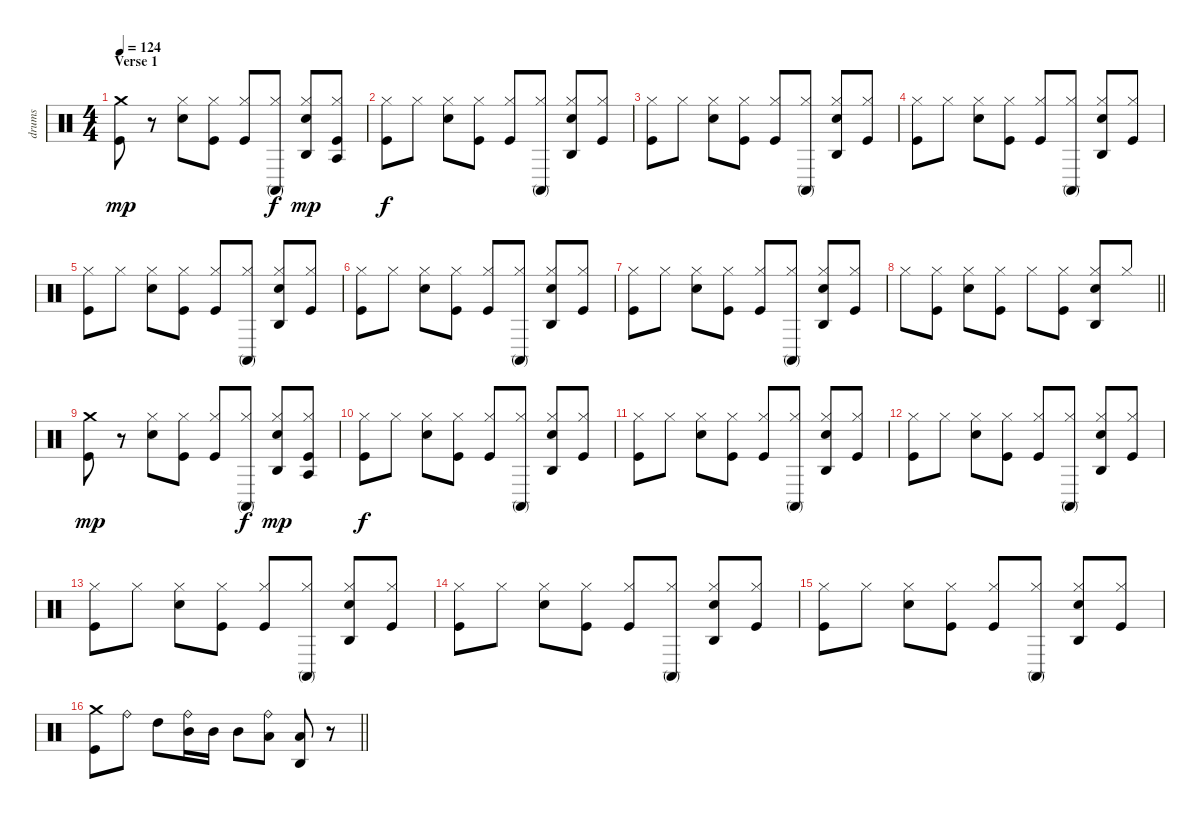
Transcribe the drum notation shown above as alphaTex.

\track ("drums" "drums") {instrument percussion}
\staff {score}
\articulation defaults
\ts (4 4)
\section ("" "Verse 1")
\tempo 124
\clef neutral
\ks c
("Crash medium (hit)" "Kick (hit)").8{dy mp} r.8 ("Electric Snare (hit)" "Hi-Hat (closed)").8 ("Hi-Hat (closed)" "Kick (hit)").8 ("Hi-Hat (closed)" "Kick (hit)").8 ("Conga high (mute)" "Hi-Hat (closed)").8{dy f} ("Agogo high (hit)" "Electric Snare (hit)" "Hi-Hat (closed)").8{dy mp} ("Agogo tow (hit)" "Hi-Hat (closed)" "Kick (hit)").8 |
("Hi-Hat (closed)" "Kick (hit)").8{dy f} "Hi-Hat (closed)".8 ("Electric Snare (hit)" "Hi-Hat (closed)").8 ("Hi-Hat (closed)" "Kick (hit)").8 ("Hi-Hat (closed)" "Kick (hit)").8 ("Conga high (mute)" "Hi-Hat (closed)").8 ("Agogo high (hit)" "Electric Snare (hit)" "Hi-Hat (closed)").8 ("Hi-Hat (closed)" "Kick (hit)").8 |
("Hi-Hat (closed)" "Kick (hit)").8 "Hi-Hat (closed)".8 ("Electric Snare (hit)" "Hi-Hat (closed)").8 ("Hi-Hat (closed)" "Kick (hit)").8 ("Hi-Hat (closed)" "Kick (hit)").8 ("Conga high (mute)" "Hi-Hat (closed)").8 ("Agogo high (hit)" "Electric Snare (hit)" "Hi-Hat (closed)").8 ("Hi-Hat (closed)" "Kick (hit)").8 |
("Hi-Hat (closed)" "Kick (hit)").8 "Hi-Hat (closed)".8 ("Electric Snare (hit)" "Hi-Hat (closed)").8 ("Hi-Hat (closed)" "Kick (hit)").8 ("Hi-Hat (closed)" "Kick (hit)").8 ("Conga high (mute)" "Hi-Hat (closed)").8 ("Agogo high (hit)" "Electric Snare (hit)" "Hi-Hat (closed)").8 ("Hi-Hat (closed)" "Kick (hit)").8 |
("Hi-Hat (closed)" "Kick (hit)").8 "Hi-Hat (closed)".8 ("Electric Snare (hit)" "Hi-Hat (closed)").8 ("Hi-Hat (closed)" "Kick (hit)").8 ("Hi-Hat (closed)" "Kick (hit)").8 ("Conga high (mute)" "Hi-Hat (closed)").8 ("Agogo high (hit)" "Electric Snare (hit)" "Hi-Hat (closed)").8 ("Hi-Hat (closed)" "Kick (hit)").8 |
("Hi-Hat (closed)" "Kick (hit)").8 "Hi-Hat (closed)".8 ("Electric Snare (hit)" "Hi-Hat (closed)").8 ("Hi-Hat (closed)" "Kick (hit)").8 ("Hi-Hat (closed)" "Kick (hit)").8 ("Conga high (mute)" "Hi-Hat (closed)").8 ("Agogo high (hit)" "Electric Snare (hit)" "Hi-Hat (closed)").8 ("Hi-Hat (closed)" "Kick (hit)").8 |
("Hi-Hat (closed)" "Kick (hit)").8 "Hi-Hat (closed)".8 ("Electric Snare (hit)" "Hi-Hat (closed)").8 ("Hi-Hat (closed)" "Kick (hit)").8 ("Hi-Hat (closed)" "Kick (hit)").8 ("Conga high (mute)" "Hi-Hat (closed)").8 ("Agogo high (hit)" "Electric Snare (hit)" "Hi-Hat (closed)").8 ("Hi-Hat (closed)" "Kick (hit)").8 |
\barLineRight lightlight "Hi-Hat (closed)".8
("Hi-Hat (closed)" "Kick (hit)").8 ("Electric Snare (hit)" "Hi-Hat (closed)").8 ("Hi-Hat (closed)" "Kick (hit)").8 "Hi-Hat (closed)".8 ("Hi-Hat (closed)" "Kick (hit)").8 ("Agogo high (hit)" "Electric Snare (hit)" "Hi-Hat (closed)").8 "Hi-Hat (closed)".8 |
("Crash medium (hit)" "Kick (hit)").8{dy mp} r.8 ("Electric Snare (hit)" "Hi-Hat (closed)").8 ("Hi-Hat (closed)" "Kick (hit)").8 ("Hi-Hat (closed)" "Kick (hit)").8 ("Conga high (mute)" "Hi-Hat (closed)").8{dy f} ("Agogo high (hit)" "Electric Snare (hit)" "Hi-Hat (closed)").8{dy mp} ("Agogo tow (hit)" "Hi-Hat (closed)" "Kick (hit)").8 |
("Hi-Hat (closed)" "Kick (hit)").8{dy f} "Hi-Hat (closed)".8 ("Electric Snare (hit)" "Hi-Hat (closed)").8 ("Hi-Hat (closed)" "Kick (hit)").8 ("Hi-Hat (closed)" "Kick (hit)").8 ("Conga high (mute)" "Hi-Hat (closed)").8 ("Agogo high (hit)" "Electric Snare (hit)" "Hi-Hat (closed)").8 ("Hi-Hat (closed)" "Kick (hit)").8 |
("Hi-Hat (closed)" "Kick (hit)").8 "Hi-Hat (closed)".8 ("Electric Snare (hit)" "Hi-Hat (closed)").8 ("Hi-Hat (closed)" "Kick (hit)").8 ("Hi-Hat (closed)" "Kick (hit)").8 ("Conga high (mute)" "Hi-Hat (closed)").8 ("Agogo high (hit)" "Electric Snare (hit)" "Hi-Hat (closed)").8 ("Hi-Hat (closed)" "Kick (hit)").8 |
("Hi-Hat (closed)" "Kick (hit)").8 "Hi-Hat (closed)".8 ("Electric Snare (hit)" "Hi-Hat (closed)").8 ("Hi-Hat (closed)" "Kick (hit)").8 ("Hi-Hat (closed)" "Kick (hit)").8 ("Conga high (mute)" "Hi-Hat (closed)").8 ("Agogo high (hit)" "Electric Snare (hit)" "Hi-Hat (closed)").8 ("Hi-Hat (closed)" "Kick (hit)").8 |
("Hi-Hat (closed)" "Kick (hit)").8 "Hi-Hat (closed)".8 ("Electric Snare (hit)" "Hi-Hat (closed)").8 ("Hi-Hat (closed)" "Kick (hit)").8 ("Hi-Hat (closed)" "Kick (hit)").8 ("Conga high (mute)" "Hi-Hat (closed)").8 ("Agogo high (hit)" "Electric Snare (hit)" "Hi-Hat (closed)").8 ("Hi-Hat (closed)" "Kick (hit)").8 |
("Hi-Hat (closed)" "Kick (hit)").8 "Hi-Hat (closed)".8 ("Electric Snare (hit)" "Hi-Hat (closed)").8 ("Hi-Hat (closed)" "Kick (hit)").8 ("Hi-Hat (closed)" "Kick (hit)").8 ("Conga high (mute)" "Hi-Hat (closed)").8 ("Agogo high (hit)" "Electric Snare (hit)" "Hi-Hat (closed)").8 ("Hi-Hat (closed)" "Kick (hit)").8 |
("Hi-Hat (closed)" "Kick (hit)").8 "Hi-Hat (closed)".8 ("Electric Snare (hit)" "Hi-Hat (closed)").8 ("Hi-Hat (closed)" "Kick (hit)").8 ("Hi-Hat (closed)" "Kick (hit)").8 ("Conga high (mute)" "Hi-Hat (closed)").8 ("Agogo high (hit)" "Electric Snare (hit)" "Hi-Hat (closed)").8 ("Hi-Hat (closed)" "Kick (hit)").8 |
\barLineRight lightlight
("Crash medium (hit)" "Kick (hit)").8 "Ride (bell)".8 "High Tom (hit)".8 ("Ride (bell)" "Mid Tom (hit)").16 "Mid Tom (hit)".16 "Mid Tom (hit)".8 ("Ride (bell)" "Low Tom (hit)").8 ("Agogo high (hit)" "Low Tom (hit)").8 r.8
